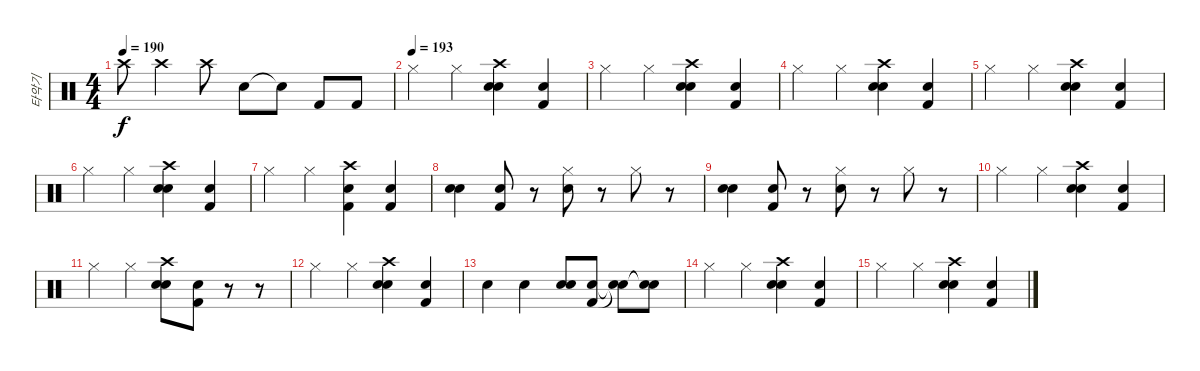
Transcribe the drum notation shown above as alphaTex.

\track ("타악기" "타악기") {instrument percussion}
\staff {score}
\articulation defaults
\ts (4 4)
\tempo 190
\clef neutral
\ks c "Crash high (hit)".8{dy f} "Crash high (hit)".4 "Crash high (hit)".8 "Electric Snare (hit)".8 "Snare (hit)"{t}.8 "Kick (hit) 2".8 "Kick (hit) 2".8
|
\tempo (193)
"Hi-Hat (closed)".4{volume 13} "Hi-Hat (closed)".4 ("Crash high (hit)" "Electric Snare (hit)" "Snare (hit) 2").4 ("Electric Snare (hit)" "Kick (hit) 2").4 |
"Hi-Hat (closed)".4 "Hi-Hat (closed)".4 ("Crash high (hit)" "Electric Snare (hit)" "Snare (hit) 2").4 ("Electric Snare (hit)" "Kick (hit) 2").4 |
"Hi-Hat (closed)".4 "Hi-Hat (closed)".4 ("Crash high (hit)" "Electric Snare (hit)" "Snare (hit) 2").4 ("Electric Snare (hit)" "Kick (hit) 2").4 |
"Hi-Hat (closed)".4 "Hi-Hat (closed)".4 ("Crash high (hit)" "Electric Snare (hit)" "Snare (hit) 2").4 ("Electric Snare (hit)" "Kick (hit) 2").4 |
"Hi-Hat (closed)".4 "Hi-Hat (closed)".4 ("Crash high (hit)" "Electric Snare (hit)" "Snare (hit) 2").4 ("Electric Snare (hit)" "Kick (hit) 2").4 |
"Hi-Hat (closed)".4 "Hi-Hat (closed)".4 ("Crash high (hit)" "Electric Snare (hit)" "Kick (hit) 2").4 ("Electric Snare (hit)" "Kick (hit) 2").4 |
("Electric Snare (hit)" "Snare (hit) 2").4 ("Electric Snare (hit)" "Kick (hit) 2").8 r.8 ("Hi-Hat (closed)" "Snare (hit) 2").8 r.8 "Hi-Hat (closed)".8 r.8 |
("Electric Snare (hit)" "Snare (hit) 2").4 ("Electric Snare (hit)" "Kick (hit) 2").8 r.8 ("Hi-Hat (closed)" "Snare (hit) 2").8 r.8 "Hi-Hat (closed)".8 r.8 |
"Hi-Hat (closed)".4 "Hi-Hat (closed)".4 ("Crash high (hit)" "Electric Snare (hit)" "Snare (hit) 2").4 ("Electric Snare (hit)" "Kick (hit) 2").4 |
"Hi-Hat (closed)".4 "Hi-Hat (closed)".4 ("Crash high (hit)" "Electric Snare (hit)" "Snare (hit) 2").8 ("Electric Snare (hit)" "Kick (hit) 2").8 r.8 r.8 |
"Hi-Hat (closed)".4 "Hi-Hat (closed)".4 ("Crash high (hit)" "Electric Snare (hit)" "Snare (hit) 2").4 ("Electric Snare (hit)" "Kick (hit) 2").4 |
"Electric Snare (hit)".4 "Electric Snare (hit)".4 ("Snare (hit) 2" "Electric Snare (hit)").8 ("Kick (hit) 2" "Electric Snare (hit)").8 ("Snare (hit)"{t} "Snare (hit)"{t}).8 ("Snare (hit)"{t} "Snare (hit)"{t}).8 |
"Hi-Hat (closed)".4 "Hi-Hat (closed)".4 ("Crash high (hit)" "Electric Snare (hit)" "Snare (hit) 2").4 ("Electric Snare (hit)" "Kick (hit) 2").4 |
"Hi-Hat (closed)".4 "Hi-Hat (closed)".4 ("Crash high (hit)" "Electric Snare (hit)" "Snare (hit) 2").4 ("Electric Snare (hit)" "Kick (hit) 2").4
